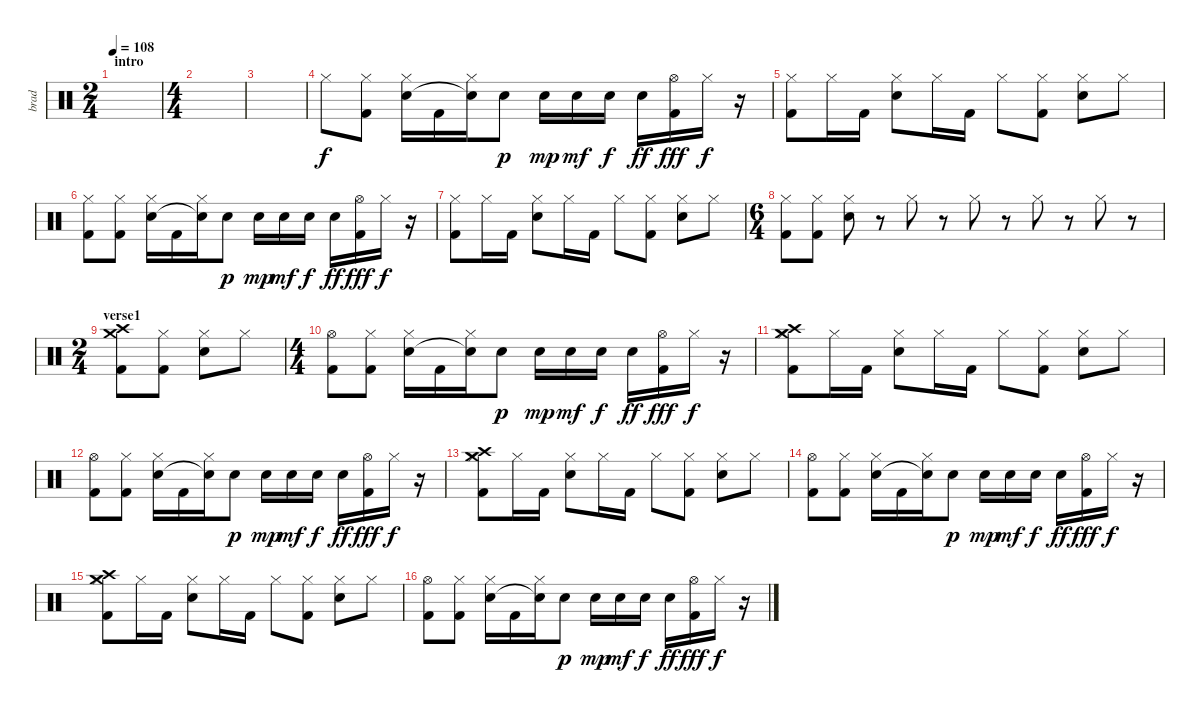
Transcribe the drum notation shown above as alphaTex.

\track ("brad" "brad") {instrument percussion}
\staff {score}
\articulation defaults
\ts (2 4)
\section ("" "intro")
\tempo 108
\clef neutral
\ks c
|
\ts (4 4)
|
|
"Hi-Hat (closed)".8 ("Hi-Hat (closed)" "Kick (hit) 2").8 ("Hi-Hat (closed)" "Electric Snare (hit)").16 "Kick (hit) 2".16 ("Hi-Hat (closed)" "Snare (hit)"{t}).16 "Electric Snare (hit)".8{dy p} "Electric Snare (hit)".16{dy mp} "Electric Snare (hit)".16{dy mf} "Electric Snare (hit)".16{dy f} "Electric Snare (hit)".16{dy ff} ("Hi-Hat (open)" "Kick (hit) 2").16{dy fff} "Hi-Hat (closed)".16{dy f} r.16 |
("Hi-Hat (closed)" "Kick (hit) 2").8 "Hi-Hat (closed)".16 "Kick (hit) 2".16 ("Hi-Hat (closed)" "Electric Snare (hit)").8 "Hi-Hat (closed)".16 "Kick (hit) 2".16 "Hi-Hat (closed)".8 ("Hi-Hat (closed)" "Kick (hit) 2").8 ("Hi-Hat (closed)" "Electric Snare (hit)").8 "Hi-Hat (closed)".8 |
("Hi-Hat (closed)" "Kick (hit) 2").8 ("Hi-Hat (closed)" "Kick (hit) 2").8 ("Hi-Hat (closed)" "Electric Snare (hit)").16 "Kick (hit) 2".16 ("Hi-Hat (closed)" "Snare (hit)"{t}).16 "Electric Snare (hit)".8{dy p} "Electric Snare (hit)".16{dy mp} "Electric Snare (hit)".16{dy mf} "Electric Snare (hit)".16{dy f} "Electric Snare (hit)".16{dy ff} ("Hi-Hat (open)" "Kick (hit) 2").16{dy fff} "Hi-Hat (closed)".16{dy f} r.16 |
("Hi-Hat (closed)" "Kick (hit) 2").8 "Hi-Hat (closed)".16 "Kick (hit) 2".16 ("Hi-Hat (closed)" "Electric Snare (hit)").8 "Hi-Hat (closed)".16 "Kick (hit) 2".16 "Hi-Hat (closed)".8 ("Hi-Hat (closed)" "Kick (hit) 2").8 ("Hi-Hat (closed)" "Electric Snare (hit)").8 "Hi-Hat (closed)".8 |
\ts (6 4)
("Hi-Hat (closed)" "Kick (hit) 2").8 ("Hi-Hat (closed)" "Kick (hit) 2").8 ("Hi-Hat (closed)" "Electric Snare (hit)").8 r.8 "Hi-Hat (closed)".8 r.8 "Hi-Hat (closed)".8 r.8 "Hi-Hat (closed)".8 r.8 "Hi-Hat (closed)".8 r.8 |
\ts (2 4)
\section ("" "verse1")
("Crash high (hit)" "Crash medium (hit)" "Kick (hit) 2").8 ("Hi-Hat (closed)" "Kick (hit) 2").8 ("Hi-Hat (closed)" "Electric Snare (hit)").8 "Hi-Hat (closed)".8 |
\ts (4 4)
("Hi-Hat (open)" "Kick (hit) 2").8 ("Hi-Hat (closed)" "Kick (hit) 2").8 ("Hi-Hat (closed)" "Electric Snare (hit)").16 "Kick (hit) 2".16 ("Hi-Hat (closed)" "Snare (hit)"{t}).16 "Electric Snare (hit)".8{dy p} "Electric Snare (hit)".16{dy mp} "Electric Snare (hit)".16{dy mf} "Electric Snare (hit)".16{dy f} "Electric Snare (hit)".16{dy ff} ("Hi-Hat (open)" "Kick (hit) 2").16{dy fff} "Hi-Hat (closed)".16{dy f} r.16 |
("Crash medium (hit)" "Crash high (hit)" "Hi-Hat (closed)" "Kick (hit) 2").8 "Hi-Hat (closed)".16 "Kick (hit) 2".16 ("Hi-Hat (closed)" "Electric Snare (hit)").8 "Hi-Hat (closed)".16 "Kick (hit) 2".16 "Hi-Hat (closed)".8 ("Hi-Hat (closed)" "Kick (hit) 2").8 ("Hi-Hat (closed)" "Electric Snare (hit)").8 "Hi-Hat (closed)".8 |
("Hi-Hat (open)" "Kick (hit) 2").8 ("Hi-Hat (closed)" "Kick (hit) 2").8 ("Hi-Hat (closed)" "Electric Snare (hit)").16 "Kick (hit) 2".16 ("Hi-Hat (closed)" "Snare (hit)"{t}).16 "Electric Snare (hit)".8{dy p} "Electric Snare (hit)".16{dy mp} "Electric Snare (hit)".16{dy mf} "Electric Snare (hit)".16{dy f} "Electric Snare (hit)".16{dy ff} ("Hi-Hat (open)" "Kick (hit) 2").16{dy fff} "Hi-Hat (closed)".16{dy f} r.16 |
("Crash medium (hit)" "Crash high (hit)" "Hi-Hat (closed)" "Kick (hit) 2").8 "Hi-Hat (closed)".16 "Kick (hit) 2".16 ("Hi-Hat (closed)" "Electric Snare (hit)").8 "Hi-Hat (closed)".16 "Kick (hit) 2".16 "Hi-Hat (closed)".8 ("Hi-Hat (closed)" "Kick (hit) 2").8 ("Hi-Hat (closed)" "Electric Snare (hit)").8 "Hi-Hat (closed)".8 |
("Hi-Hat (open)" "Kick (hit) 2").8 ("Hi-Hat (closed)" "Kick (hit) 2").8 ("Hi-Hat (closed)" "Electric Snare (hit)").16 "Kick (hit) 2".16 ("Hi-Hat (closed)" "Snare (hit)"{t}).16 "Electric Snare (hit)".8{dy p} "Electric Snare (hit)".16{dy mp} "Electric Snare (hit)".16{dy mf} "Electric Snare (hit)".16{dy f} "Electric Snare (hit)".16{dy ff} ("Hi-Hat (open)" "Kick (hit) 2").16{dy fff} "Hi-Hat (closed)".16{dy f} r.16 |
("Crash medium (hit)" "Crash high (hit)" "Hi-Hat (closed)" "Kick (hit) 2").8 "Hi-Hat (closed)".16 "Kick (hit) 2".16 ("Hi-Hat (closed)" "Electric Snare (hit)").8 "Hi-Hat (closed)".16 "Kick (hit) 2".16 "Hi-Hat (closed)".8 ("Hi-Hat (closed)" "Kick (hit) 2").8 ("Hi-Hat (closed)" "Electric Snare (hit)").8 "Hi-Hat (closed)".8 |
("Hi-Hat (open)" "Kick (hit) 2").8 ("Hi-Hat (closed)" "Kick (hit) 2").8 ("Hi-Hat (closed)" "Electric Snare (hit)").16 "Kick (hit) 2".16 ("Hi-Hat (closed)" "Snare (hit)"{t}).16 "Electric Snare (hit)".8{dy p} "Electric Snare (hit)".16{dy mp} "Electric Snare (hit)".16{dy mf} "Electric Snare (hit)".16{dy f} "Electric Snare (hit)".16{dy ff} ("Hi-Hat (open)" "Kick (hit) 2").16{dy fff} "Hi-Hat (closed)".16{dy f} r.16
